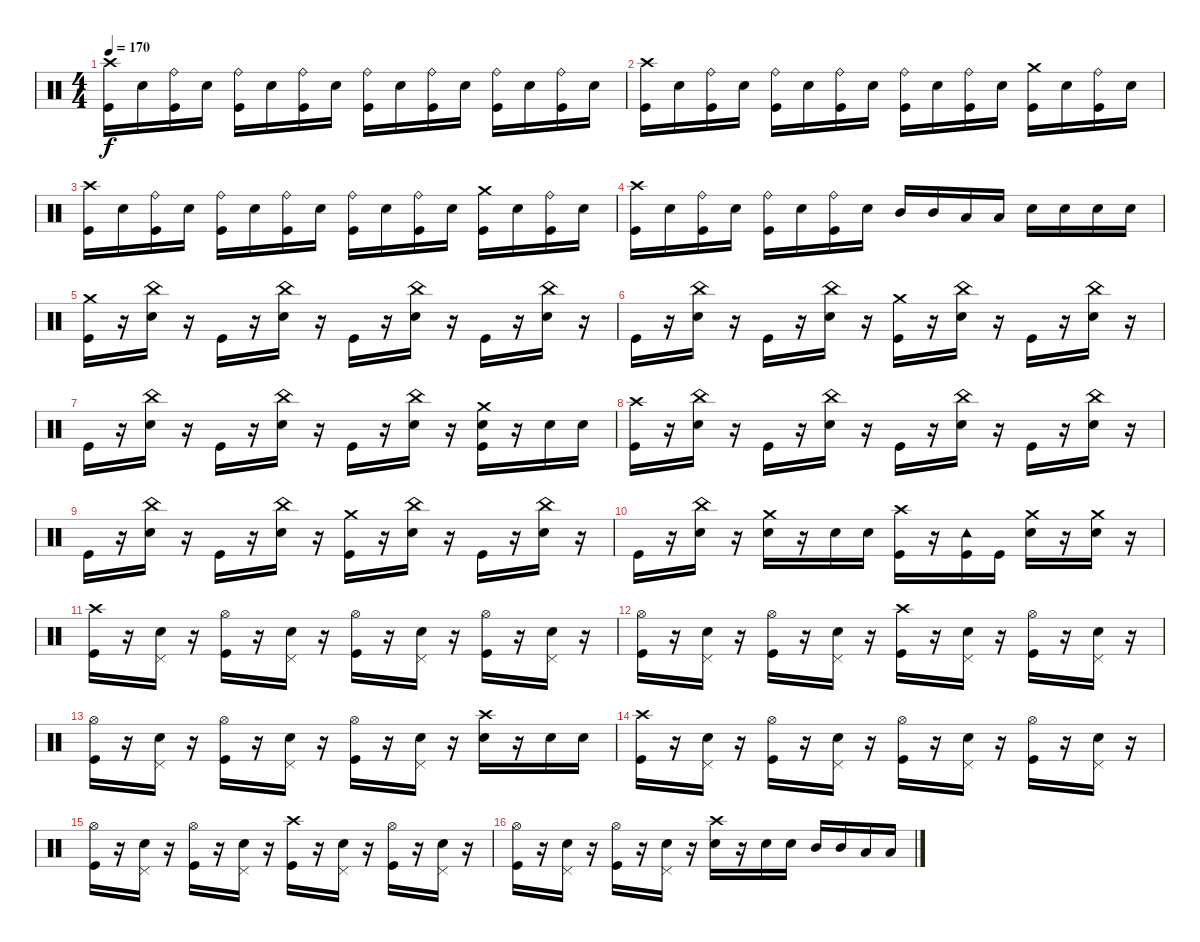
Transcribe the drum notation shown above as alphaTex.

\track "" {instrument percussion}
\staff {score}
\articulation defaults
\ts (4 4)
\tempo 170
\clef neutral
\ks c
("Crash high (hit)" "Kick (hit)").16{dy f} "Snare (hit) 2".16 ("Kick (hit)" "Ride (bell)").16 "Snare (hit) 2".16 ("Ride (bell)" "Kick (hit)").16 "Snare (hit) 2".16 ("Ride (bell)" "Kick (hit)").16 "Snare (hit) 2".16 ("Ride (bell)" "Kick (hit)").16 "Snare (hit) 2".16 ("Ride (bell)" "Kick (hit)").16 "Snare (hit) 2".16 ("Kick (hit)" "Ride (bell)").16 "Snare (hit) 2".16 ("Ride (bell)" "Kick (hit)").16 "Snare (hit) 2".16 |
("Kick (hit)" "Crash high (hit)").16 "Snare (hit) 2".16 ("Kick (hit)" "Ride (bell)").16 "Snare (hit) 2".16 ("Kick (hit)" "Ride (bell)").16 "Snare (hit) 2".16 ("Ride (bell)" "Kick (hit)").16 "Snare (hit) 2".16 ("Ride (bell)" "Kick (hit)").16 "Snare (hit) 2".16 ("Ride (bell)" "Kick (hit)").16 "Snare (hit) 2".16 ("Crash medium (hit)" "Kick (hit)").16 "Snare (hit) 2".16 ("Ride (bell)" "Kick (hit)").16 "Snare (hit) 2".16 |
("Crash high (hit)" "Kick (hit)").16 "Snare (hit) 2".16 ("Kick (hit)" "Ride (bell)").16 "Snare (hit) 2".16 ("Ride (bell)" "Kick (hit)").16 "Snare (hit) 2".16 ("Ride (bell)" "Kick (hit)").16 "Snare (hit) 2".16 ("Ride (bell)" "Kick (hit)").16 "Snare (hit) 2".16 ("Ride (bell)" "Kick (hit)").16 "Snare (hit) 2".16 ("Kick (hit)" "Crash medium (hit)").16 "Snare (hit) 2".16 ("Ride (bell)" "Kick (hit)").16 "Snare (hit) 2".16 |
("Kick (hit)" "Crash high (hit)").16 "Snare (hit) 2".16 ("Kick (hit)" "Ride (bell)").16 "Snare (hit) 2".16 ("Kick (hit)" "Ride (bell)").16 "Snare (hit) 2".16 ("Ride (bell)" "Kick (hit)").16 "Snare (hit) 2".16 "Mid Tom (hit)".16 "Mid Tom (hit)".16 "Low Tom (hit)".16 "Low Tom (hit)".16 "Snare (hit) 2".16 "Snare (hit) 2".16 "Snare (hit) 2".16 "Snare (hit) 2".16 |
("Crash medium (hit)" "Kick (hit)").16 r.16 ("China (hit)" "Snare (hit) 2").16 r.16 "Kick (hit)".16 r.16 ("Snare (hit) 2" "China (hit)").16 r.16 "Kick (hit)".16 r.16 ("Snare (hit) 2" "China (hit)").16 r.16 "Kick (hit)".16 r.16 ("Snare (hit) 2" "China (hit)").16 r.16 |
"Kick (hit)".16 r.16 ("China (hit)" "Snare (hit) 2").16 r.16 "Kick (hit)".16 r.16 ("China (hit)" "Snare (hit) 2").16 r.16 ("Crash medium (hit)" "Kick (hit)").16 r.16 ("China (hit)" "Snare (hit) 2").16 r.16 "Kick (hit)".16 r.16 ("Snare (hit) 2" "China (hit)").16 r.16 |
"Kick (hit)".16 r.16 ("Snare (hit) 2" "China (hit)").16 r.16 "Kick (hit)".16 r.16 ("Snare (hit) 2" "China (hit)").16 r.16 "Kick (hit)".16 r.16 ("China (hit)" "Snare (hit) 2").16 r.16 ("Snare (hit) 2" "Crash medium (hit)" "Kick (hit)").16 r.16 "Snare (hit) 2".16 "Snare (hit) 2".16 |
("Crash high (hit)" "Kick (hit)").16 r.16 ("China (hit)" "Snare (hit) 2").16 r.16 "Kick (hit)".16 r.16 ("Snare (hit) 2" "China (hit)").16 r.16 "Kick (hit)".16 r.16 ("Snare (hit) 2" "China (hit)").16 r.16 "Kick (hit)".16 r.16 ("Snare (hit) 2" "China (hit)").16 r.16 |
"Kick (hit)".16 r.16 ("China (hit)" "Snare (hit) 2").16 r.16 "Kick (hit)".16 r.16 ("China (hit)" "Snare (hit) 2").16 r.16 ("Crash medium (hit)" "Kick (hit)").16 r.16 ("China (hit)" "Snare (hit) 2").16 r.16 "Kick (hit)".16 r.16 ("Snare (hit) 2" "China (hit)").16 r.16 |
"Kick (hit)".16 r.16 ("Snare (hit) 2" "China (hit)").16 r.16 ("Crash medium (hit)" "Snare (hit) 2").16 r.16 "Snare (hit) 2".16 "Snare (hit) 2".16 ("Crash high (hit)" "Kick (hit)").16 r.16 ("Kick (hit)" "Tambourine (hit)").16 "Kick (hit)".16 ("Snare (hit) 2" "Crash medium (hit)").16 r.16 ("Snare (hit) 2" "Crash medium (hit)").16 r.16 |
("Crash high (hit)" "Kick (hit)").16 r.16 ("Snare (hit) 2" "Pedal Hi-Hat (hit)").16 r.16 ("Hi-Hat (open)" "Kick (hit)").16 r.16 ("Pedal Hi-Hat (hit)" "Snare (hit) 2").16 r.16 ("Hi-Hat (open)" "Kick (hit)").16 r.16 ("Pedal Hi-Hat (hit)" "Snare (hit) 2").16 r.16 ("Hi-Hat (open)" "Kick (hit)").16 r.16 ("Snare (hit) 2" "Pedal Hi-Hat (hit)").16 r.16 |
("Hi-Hat (open)" "Kick (hit)").16 r.16 ("Pedal Hi-Hat (hit)" "Snare (hit) 2").16 r.16 ("Kick (hit)" "Hi-Hat (open)").16 r.16 ("Pedal Hi-Hat (hit)" "Snare (hit) 2").16 r.16 ("Kick (hit)" "Crash high (hit)").16 r.16 ("Snare (hit) 2" "Pedal Hi-Hat (hit)").16 r.16 ("Kick (hit)" "Hi-Hat (open)").16 r.16 ("Snare (hit) 2" "Pedal Hi-Hat (hit)").16 r.16 |
("Hi-Hat (open)" "Kick (hit)").16 r.16 ("Pedal Hi-Hat (hit)" "Snare (hit) 2").16 r.16 ("Hi-Hat (open)" "Kick (hit)").16 r.16 ("Pedal Hi-Hat (hit)" "Snare (hit) 2").16 r.16 ("Hi-Hat (open)" "Kick (hit)").16 r.16 ("Pedal Hi-Hat (hit)" "Snare (hit) 2").16 r.16 ("Snare (hit) 2" "Crash high (hit)").16 r.16 "Snare (hit) 2".16 "Snare (hit) 2".16 |
("Crash high (hit)" "Kick (hit)").16 r.16 ("Snare (hit) 2" "Pedal Hi-Hat (hit)").16 r.16 ("Hi-Hat (open)" "Kick (hit)").16 r.16 ("Pedal Hi-Hat (hit)" "Snare (hit) 2").16 r.16 ("Hi-Hat (open)" "Kick (hit)").16 r.16 ("Pedal Hi-Hat (hit)" "Snare (hit) 2").16 r.16 ("Hi-Hat (open)" "Kick (hit)").16 r.16 ("Snare (hit) 2" "Pedal Hi-Hat (hit)").16 r.16 |
("Hi-Hat (open)" "Kick (hit)").16 r.16 ("Pedal Hi-Hat (hit)" "Snare (hit) 2").16 r.16 ("Kick (hit)" "Hi-Hat (open)").16 r.16 ("Pedal Hi-Hat (hit)" "Snare (hit) 2").16 r.16 ("Kick (hit)" "Crash high (hit)").16 r.16 ("Snare (hit) 2" "Pedal Hi-Hat (hit)").16 r.16 ("Kick (hit)" "Hi-Hat (open)").16 r.16 ("Snare (hit) 2" "Pedal Hi-Hat (hit)").16 r.16 |
("Hi-Hat (open)" "Kick (hit)").16 r.16 ("Pedal Hi-Hat (hit)" "Snare (hit) 2").16 r.16 ("Hi-Hat (open)" "Kick (hit)").16 r.16 ("Pedal Hi-Hat (hit)" "Snare (hit) 2").16 r.16 ("Snare (hit) 2" "Crash high (hit)").16 r.16 "Snare (hit) 2".16 "Snare (hit) 2".16 "Mid Tom (hit)".16 "Mid Tom (hit)".16 "Low Tom (hit)".16 "Low Tom (hit)".16
